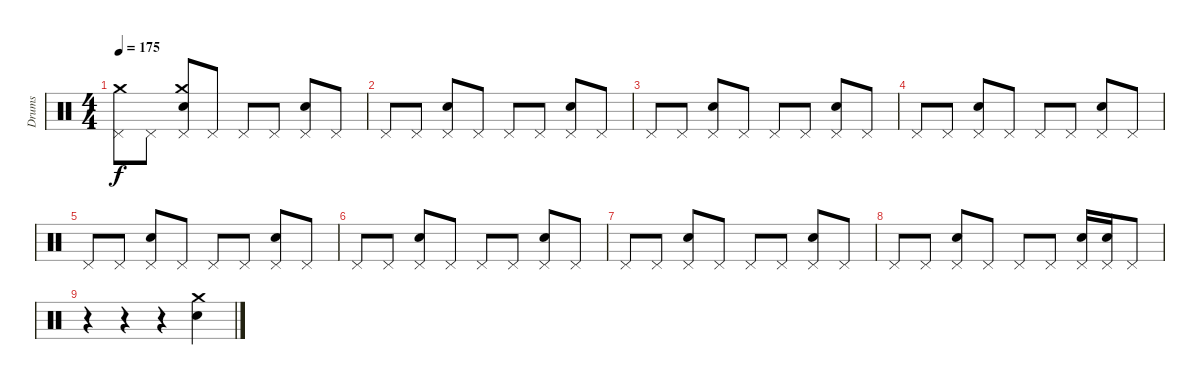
\track ("Drums" "Drums") {instrument percussion}
\staff {score}
\articulation defaults
\ts (4 4)
\tempo 175
\clef neutral
\ks c
("Pedal Hi-Hat (hit)" "Crash medium (hit)").8{dy f} "Pedal Hi-Hat (hit)".8 ("Pedal Hi-Hat (hit)" "Snare (hit) 2" "Crash medium (hit)").8 "Pedal Hi-Hat (hit)".8 "Pedal Hi-Hat (hit)".8 "Pedal Hi-Hat (hit)".8 ("Pedal Hi-Hat (hit)" "Snare (hit) 2").8 "Pedal Hi-Hat (hit)".8 |
"Pedal Hi-Hat (hit)".8 "Pedal Hi-Hat (hit)".8 ("Pedal Hi-Hat (hit)" "Snare (hit) 2").8 "Pedal Hi-Hat (hit)".8 "Pedal Hi-Hat (hit)".8 "Pedal Hi-Hat (hit)".8 ("Pedal Hi-Hat (hit)" "Snare (hit) 2").8 "Pedal Hi-Hat (hit)".8 |
"Pedal Hi-Hat (hit)".8 "Pedal Hi-Hat (hit)".8 ("Pedal Hi-Hat (hit)" "Snare (hit) 2").8 "Pedal Hi-Hat (hit)".8 "Pedal Hi-Hat (hit)".8 "Pedal Hi-Hat (hit)".8 ("Pedal Hi-Hat (hit)" "Snare (hit) 2").8 "Pedal Hi-Hat (hit)".8 |
"Pedal Hi-Hat (hit)".8 "Pedal Hi-Hat (hit)".8 ("Pedal Hi-Hat (hit)" "Snare (hit) 2").8 "Pedal Hi-Hat (hit)".8 "Pedal Hi-Hat (hit)".8 "Pedal Hi-Hat (hit)".8 ("Pedal Hi-Hat (hit)" "Snare (hit) 2").8 "Pedal Hi-Hat (hit)".8 |
"Pedal Hi-Hat (hit)".8 "Pedal Hi-Hat (hit)".8 ("Pedal Hi-Hat (hit)" "Snare (hit) 2").8 "Pedal Hi-Hat (hit)".8 "Pedal Hi-Hat (hit)".8 "Pedal Hi-Hat (hit)".8 ("Pedal Hi-Hat (hit)" "Snare (hit) 2").8 "Pedal Hi-Hat (hit)".8 |
"Pedal Hi-Hat (hit)".8 "Pedal Hi-Hat (hit)".8 ("Pedal Hi-Hat (hit)" "Snare (hit) 2").8 "Pedal Hi-Hat (hit)".8 "Pedal Hi-Hat (hit)".8 "Pedal Hi-Hat (hit)".8 ("Pedal Hi-Hat (hit)" "Snare (hit) 2").8 "Pedal Hi-Hat (hit)".8 |
"Pedal Hi-Hat (hit)".8 "Pedal Hi-Hat (hit)".8 ("Pedal Hi-Hat (hit)" "Snare (hit) 2").8 "Pedal Hi-Hat (hit)".8 "Pedal Hi-Hat (hit)".8 "Pedal Hi-Hat (hit)".8 ("Pedal Hi-Hat (hit)" "Snare (hit) 2").8 "Pedal Hi-Hat (hit)".8 |
"Pedal Hi-Hat (hit)".8 "Pedal Hi-Hat (hit)".8 ("Pedal Hi-Hat (hit)" "Snare (hit) 2").8 "Pedal Hi-Hat (hit)".8 "Pedal Hi-Hat (hit)".8 "Pedal Hi-Hat (hit)".8 ("Pedal Hi-Hat (hit)" "Snare (hit) 2").16 ("Pedal Hi-Hat (hit)" "Snare (hit) 2").16 "Pedal Hi-Hat (hit)".8 |
r.4 r.4 r.4 ("Crash medium (hit)" "Snare (hit) 2").4
